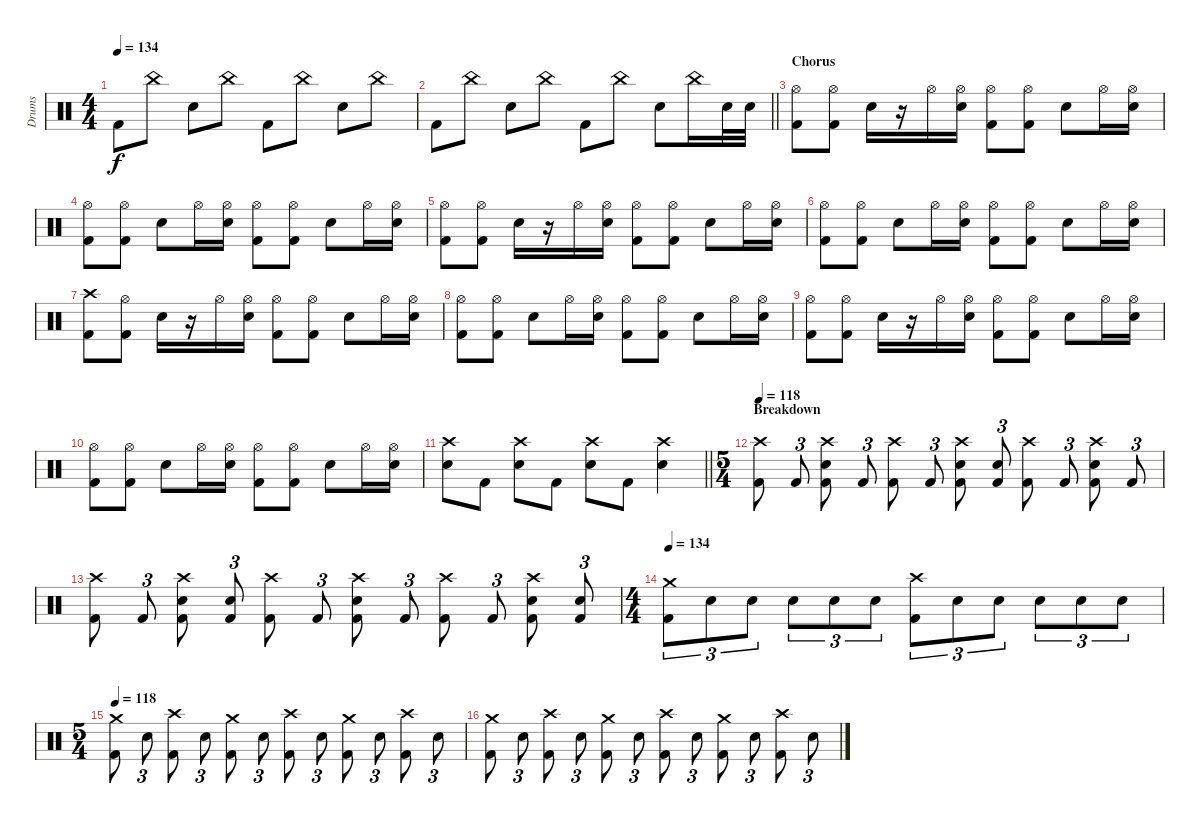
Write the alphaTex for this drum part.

\track ("Drums" "Drums") {instrument percussion}
\staff {score}
\articulation defaults
\ts (4 4)
\tempo 134
\clef neutral
\ks c "Kick (hit) 2".8{dy f} "China (hit)".8 "Electric Snare (hit)".8 "China (hit)".8 "Kick (hit) 2".8 "China (hit)".8 "Electric Snare (hit)".8 "China (hit)".8
|
\barLineRight lightlight "Kick (hit) 2".8 "China (hit)".8 "Electric Snare (hit)".8 "China (hit)".8 "Kick (hit) 2".8 "China (hit)".8 "Electric Snare (hit)".8 "China (hit)".16 "Electric Snare (hit)".32 "Electric Snare (hit)".32
|
\section ("" "Chorus")
("Hi-Hat (open)" "Kick (hit) 2").8 ("Hi-Hat (open)" "Kick (hit) 2").8 "Electric Snare (hit)".16 r.16 "Hi-Hat (open)".16 ("Hi-Hat (open)" "Electric Snare (hit)").16 ("Hi-Hat (open)" "Kick (hit) 2").8 ("Hi-Hat (open)" "Kick (hit) 2").8 "Electric Snare (hit)".8 "Hi-Hat (open)".16 ("Hi-Hat (open)" "Electric Snare (hit)").16 |
("Hi-Hat (open)" "Kick (hit) 2").8 ("Hi-Hat (open)" "Kick (hit) 2").8 "Electric Snare (hit)".8 "Hi-Hat (open)".16 ("Hi-Hat (open)" "Electric Snare (hit)").16 ("Hi-Hat (open)" "Kick (hit) 2").8 ("Hi-Hat (open)" "Kick (hit) 2").8 "Electric Snare (hit)".8 "Hi-Hat (open)".16 ("Hi-Hat (open)" "Electric Snare (hit)").16 |
("Hi-Hat (open)" "Kick (hit) 2").8 ("Hi-Hat (open)" "Kick (hit) 2").8 "Electric Snare (hit)".16 r.16 "Hi-Hat (open)".16 ("Hi-Hat (open)" "Electric Snare (hit)").16 ("Hi-Hat (open)" "Kick (hit) 2").8 ("Hi-Hat (open)" "Kick (hit) 2").8 "Electric Snare (hit)".8 "Hi-Hat (open)".16 ("Hi-Hat (open)" "Electric Snare (hit)").16 |
("Hi-Hat (open)" "Kick (hit) 2").8 ("Hi-Hat (open)" "Kick (hit) 2").8 "Electric Snare (hit)".8 "Hi-Hat (open)".16 ("Hi-Hat (open)" "Electric Snare (hit)").16 ("Hi-Hat (open)" "Kick (hit) 2").8 ("Hi-Hat (open)" "Kick (hit) 2").8 "Electric Snare (hit)".8 "Hi-Hat (open)".16 ("Hi-Hat (open)" "Electric Snare (hit)").16 |
("Crash high (hit)" "Kick (hit) 2").8 ("Hi-Hat (open)" "Kick (hit) 2").8 "Electric Snare (hit)".16 r.16 "Hi-Hat (open)".16 ("Hi-Hat (open)" "Electric Snare (hit)").16 ("Hi-Hat (open)" "Kick (hit) 2").8 ("Hi-Hat (open)" "Kick (hit) 2").8 "Electric Snare (hit)".8 "Hi-Hat (open)".16 ("Hi-Hat (open)" "Electric Snare (hit)").16 |
("Hi-Hat (open)" "Kick (hit) 2").8 ("Hi-Hat (open)" "Kick (hit) 2").8 "Electric Snare (hit)".8 "Hi-Hat (open)".16 ("Hi-Hat (open)" "Electric Snare (hit)").16 ("Hi-Hat (open)" "Kick (hit) 2").8 ("Hi-Hat (open)" "Kick (hit) 2").8 "Electric Snare (hit)".8 "Hi-Hat (open)".16 ("Hi-Hat (open)" "Electric Snare (hit)").16 |
("Hi-Hat (open)" "Kick (hit) 2").8 ("Hi-Hat (open)" "Kick (hit) 2").8 "Electric Snare (hit)".16 r.16 "Hi-Hat (open)".16 ("Hi-Hat (open)" "Electric Snare (hit)").16 ("Hi-Hat (open)" "Kick (hit) 2").8 ("Hi-Hat (open)" "Kick (hit) 2").8 "Electric Snare (hit)".8 "Hi-Hat (open)".16 ("Hi-Hat (open)" "Electric Snare (hit)").16 |
("Hi-Hat (open)" "Kick (hit) 2").8 ("Hi-Hat (open)" "Kick (hit) 2").8 "Electric Snare (hit)".8 "Hi-Hat (open)".16 ("Hi-Hat (open)" "Electric Snare (hit)").16 ("Hi-Hat (open)" "Kick (hit) 2").8 ("Hi-Hat (open)" "Kick (hit) 2").8 "Electric Snare (hit)".8 "Hi-Hat (open)".16 ("Hi-Hat (open)" "Electric Snare (hit)").16 |
\barLineRight lightlight
("Crash high (hit)" "Electric Snare (hit)").8 "Kick (hit) 2".8 ("Crash high (hit)" "Electric Snare (hit)").8 "Kick (hit) 2".8 ("Crash high (hit)" "Electric Snare (hit)").8 "Kick (hit) 2".8 ("Crash high (hit)" "Electric Snare (hit)").4 |
\ts (5 4)
\section ("" "Breakdown")
\tempo 118
("Crash high (hit)" "Kick (hit) 2").8 "Kick (hit) 2".8{tu (3 2)} ("Crash high (hit)" "Electric Snare (hit)" "Kick (hit) 2").8 "Kick (hit) 2".8{tu (3 2)} ("Crash high (hit)" "Kick (hit) 2").8 "Kick (hit) 2".8{tu (3 2)} ("Crash high (hit)" "Electric Snare (hit)" "Kick (hit) 2").8 ("Electric Snare (hit)" "Kick (hit) 2").8{tu (3 2)} ("Crash high (hit)" "Kick (hit) 2").8 "Kick (hit) 2".8{tu (3 2)} ("Crash high (hit)" "Electric Snare (hit)" "Kick (hit) 2").8 "Kick (hit) 2".8{tu (3 2)} |
("Crash high (hit)" "Kick (hit) 2").8 "Kick (hit) 2".8{tu (3 2)} ("Crash high (hit)" "Electric Snare (hit)" "Kick (hit) 2").8 ("Electric Snare (hit)" "Kick (hit) 2").8{tu (3 2)} ("Crash high (hit)" "Kick (hit) 2").8 "Kick (hit) 2".8{tu (3 2)} ("Crash high (hit)" "Electric Snare (hit)" "Kick (hit) 2").8 "Kick (hit) 2".8{tu (3 2)} ("Crash high (hit)" "Kick (hit) 2").8 "Kick (hit) 2".8{tu (3 2)} ("Crash high (hit)" "Electric Snare (hit)" "Kick (hit) 2").8 ("Electric Snare (hit)" "Kick (hit) 2").8{tu (3 2)} |
\ts (4 4)
\tempo 134
("Crash medium (hit)" "Kick (hit) 2").8{tu (3 2)} "Electric Snare (hit)".8{tu (3 2)} "Electric Snare (hit)".8{tu (3 2)} "Electric Snare (hit)".8{tu (3 2)} "Electric Snare (hit)".8{tu (3 2)} "Electric Snare (hit)".8{tu (3 2)} ("Crash high (hit)" "Kick (hit) 2").8{tu (3 2)} "Electric Snare (hit)".8{tu (3 2)} "Electric Snare (hit)".8{tu (3 2)} "Electric Snare (hit)".8{tu (3 2)} "Electric Snare (hit)".8{tu (3 2)} "Electric Snare (hit)".8{tu (3 2)} |
\ts (5 4)
\tempo 118
("Crash medium (hit)" "Kick (hit) 2").8 "Electric Snare (hit)".8{tu (3 2)} ("Crash high (hit)" "Kick (hit) 2").8 "Electric Snare (hit)".8{tu (3 2)} ("Crash medium (hit)" "Kick (hit) 2").8 "Electric Snare (hit)".8{tu (3 2)} ("Crash high (hit)" "Kick (hit) 2").8 "Electric Snare (hit)".8{tu (3 2)} ("Crash medium (hit)" "Kick (hit) 2").8 "Electric Snare (hit)".8{tu (3 2)} ("Crash high (hit)" "Kick (hit) 2").8 "Electric Snare (hit)".8{tu (3 2)} |
("Crash medium (hit)" "Kick (hit) 2").8 "Electric Snare (hit)".8{tu (3 2)} ("Crash high (hit)" "Kick (hit) 2").8 "Electric Snare (hit)".8{tu (3 2)} ("Crash medium (hit)" "Kick (hit) 2").8 "Electric Snare (hit)".8{tu (3 2)} ("Crash high (hit)" "Kick (hit) 2").8 "Electric Snare (hit)".8{tu (3 2)} ("Crash medium (hit)" "Kick (hit) 2").8 "Electric Snare (hit)".8{tu (3 2)} ("Crash high (hit)" "Kick (hit) 2").8 "Electric Snare (hit)".8{tu (3 2)}
